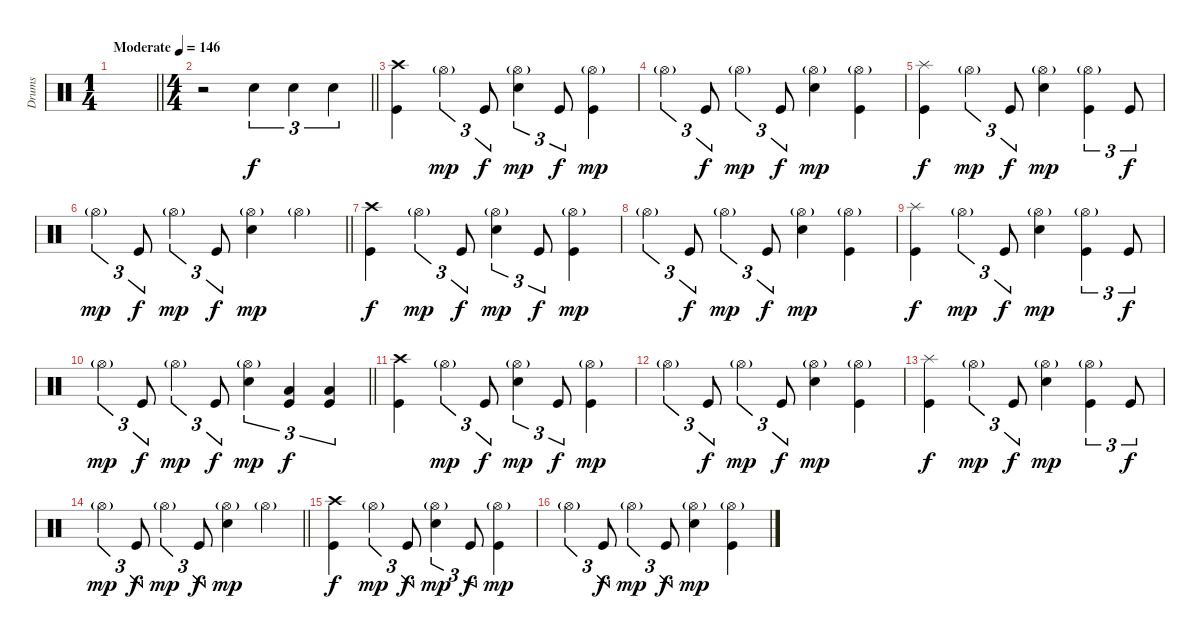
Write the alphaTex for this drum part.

\track ("Drums" "Drums") {instrument percussion}
\staff
\articulation defaults
\ts (1 4)
\tempo (146 "Moderate")
\clef neutral
\barLineRight lightlight
\ks c
|
\ts (4 4)
\barLineRight lightlight
r.2 "Electric Snare (hit)".4{tu (3 2)} "Electric Snare (hit)".4{tu (3 2)} "Electric Snare (hit)".4{tu (3 2)} |
\section ("" "")
("Crash high (hit)" "Kick (hit)").4 "Hi-Hat (open)"{g}.4{tu (3 2) dy mp} "Kick (hit)".8{tu (3 2) dy f} ("Hi-Hat (open)"{g} "Electric Snare (hit)").4{tu (3 2) dy mp} "Kick (hit)".8{tu (3 2) dy f} ("Hi-Hat (open)"{g} "Kick (hit)").4{dy mp} |
"Hi-Hat (open)"{g}.4{tu (3 2)} "Kick (hit)".8{tu (3 2) dy f} "Hi-Hat (open)"{g}.4{tu (3 2) dy mp} "Kick (hit)".8{tu (3 2) dy f} ("Hi-Hat (open)"{g} "Electric Snare (hit)").4{dy mp} ("Hi-Hat (open)"{g} "Kick (hit)").4 |
("Splash (hit)" "Kick (hit)").4{dy f} "Hi-Hat (open)"{g}.4{tu (3 2) dy mp} "Kick (hit)".8{tu (3 2) dy f} ("Hi-Hat (open)"{g} "Electric Snare (hit)").4{dy mp} ("Hi-Hat (open)"{g} "Kick (hit)").4{tu (3 2)} "Kick (hit)".8{tu (3 2) dy f} |
\barLineRight lightlight "Hi-Hat (open)"{g}.4{tu (3 2) dy mp} "Kick (hit)".8{tu (3 2) dy f} "Hi-Hat (open)"{g}.4{tu (3 2) dy mp} "Kick (hit)".8{tu (3 2) dy f}
("Hi-Hat (open)"{g} "Electric Snare (hit)").4{dy mp} "Hi-Hat (open)"{g}.4 |
("Crash high (hit)" "Kick (hit)").4{dy f} "Hi-Hat (open)"{g}.4{tu (3 2) dy mp} "Kick (hit)".8{tu (3 2) dy f} ("Hi-Hat (open)"{g} "Electric Snare (hit)").4{tu (3 2) dy mp} "Kick (hit)".8{tu (3 2) dy f} ("Hi-Hat (open)"{g} "Kick (hit)").4{dy mp} |
"Hi-Hat (open)"{g}.4{tu (3 2)} "Kick (hit)".8{tu (3 2) dy f} "Hi-Hat (open)"{g}.4{tu (3 2) dy mp} "Kick (hit)".8{tu (3 2) dy f} ("Hi-Hat (open)"{g} "Electric Snare (hit)").4{dy mp} ("Hi-Hat (open)"{g} "Kick (hit)").4 |
("Splash (hit)" "Kick (hit)").4{dy f} "Hi-Hat (open)"{g}.4{tu (3 2) dy mp} "Kick (hit)".8{tu (3 2) dy f} ("Hi-Hat (open)"{g} "Electric Snare (hit)").4{dy mp} ("Hi-Hat (open)"{g} "Kick (hit)").4{tu (3 2)} "Kick (hit)".8{tu (3 2) dy f} |
\barLineRight lightlight "Hi-Hat (open)"{g}.4{tu (3 2) dy mp} "Kick (hit)".8{tu (3 2) dy f} "Hi-Hat (open)"{g}.4{tu (3 2) dy mp} "Kick (hit)".8{tu (3 2) dy f}
("Hi-Hat (open)"{g} "Electric Snare (hit)").4{tu (3 2) dy mp} ("Low Floor Tom (hit)" "Kick (hit)").4{tu (3 2) dy f} ("Low Floor Tom (hit)" "Kick (hit)").4{tu (3 2)} |
("Crash high (hit)" "Kick (hit)").4 "Hi-Hat (open)"{g}.4{tu (3 2) dy mp} "Kick (hit)".8{tu (3 2) dy f} ("Hi-Hat (open)"{g} "Electric Snare (hit)").4{tu (3 2) dy mp} "Kick (hit)".8{tu (3 2) dy f} ("Hi-Hat (open)"{g} "Kick (hit)").4{dy mp} |
"Hi-Hat (open)"{g}.4{tu (3 2)} "Kick (hit)".8{tu (3 2) dy f} "Hi-Hat (open)"{g}.4{tu (3 2) dy mp} "Kick (hit)".8{tu (3 2) dy f} ("Hi-Hat (open)"{g} "Electric Snare (hit)").4{dy mp} ("Hi-Hat (open)"{g} "Kick (hit)").4 |
("Splash (hit)" "Kick (hit)").4{dy f} "Hi-Hat (open)"{g}.4{tu (3 2) dy mp} "Kick (hit)".8{tu (3 2) dy f} ("Hi-Hat (open)"{g} "Electric Snare (hit)").4{dy mp} ("Hi-Hat (open)"{g} "Kick (hit)").4{tu (3 2)} "Kick (hit)".8{tu (3 2) dy f} |
\barLineRight lightlight "Hi-Hat (open)"{g}.4{tu (3 2) dy mp} "Kick (hit)".8{tu (3 2) dy f} "Hi-Hat (open)"{g}.4{tu (3 2) dy mp} "Kick (hit)".8{tu (3 2) dy f}
("Hi-Hat (open)"{g} "Electric Snare (hit)").4{dy mp} "Hi-Hat (open)"{g}.4 |
("Crash high (hit)" "Kick (hit)").4{dy f} "Hi-Hat (open)"{g}.4{tu (3 2) dy mp} "Kick (hit)".8{tu (3 2) dy f} ("Hi-Hat (open)"{g} "Electric Snare (hit)").4{tu (3 2) dy mp} "Kick (hit)".8{tu (3 2) dy f} ("Hi-Hat (open)"{g} "Kick (hit)").4{dy mp} |
"Hi-Hat (open)"{g}.4{tu (3 2)} "Kick (hit)".8{tu (3 2) dy f} "Hi-Hat (open)"{g}.4{tu (3 2) dy mp} "Kick (hit)".8{tu (3 2) dy f} ("Hi-Hat (open)"{g} "Electric Snare (hit)").4{dy mp} ("Hi-Hat (open)"{g} "Kick (hit)").4
